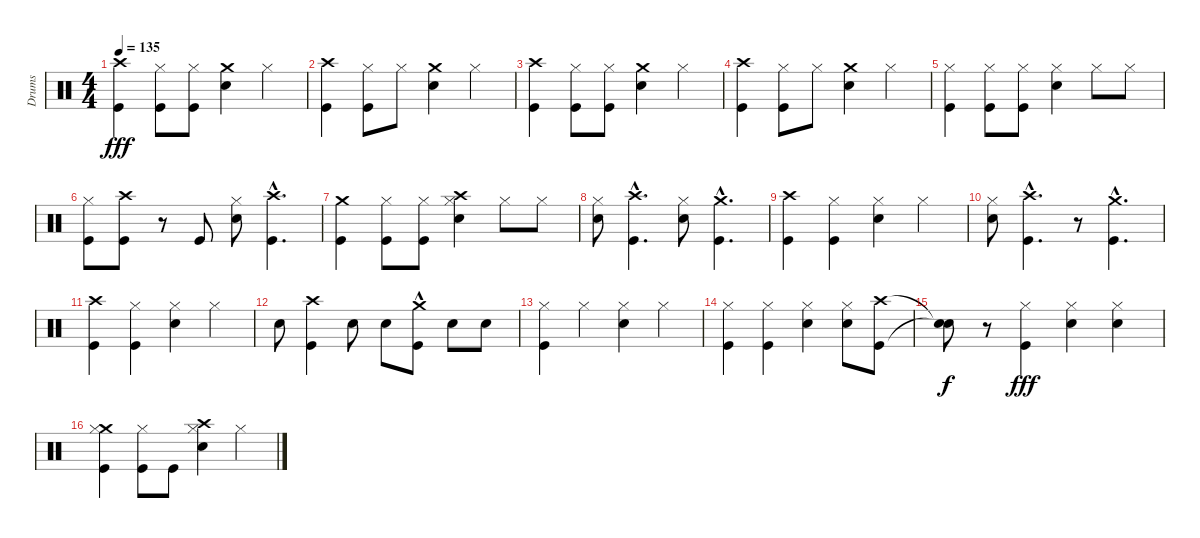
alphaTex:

\track ("Drums" "Drums") {instrument percussion}
\staff {score}
\articulation defaults
\ts (4 4)
\tempo 135
\clef neutral
\ks c
("Crash high (hit)" "Kick (hit)").4{dy fff} ("Kick (hit)" "Hi-Hat (closed)").8 ("Kick (hit)" "Hi-Hat (closed)").8 ("Crash medium (hit)" "Snare (hit) 2").4 "Hi-Hat (closed)".4 |
("Crash high (hit)" "Kick (hit)").4 ("Hi-Hat (closed)" "Kick (hit)").8 "Hi-Hat (closed)".8 ("Crash medium (hit)" "Snare (hit) 2").4 "Hi-Hat (closed)".4 |
("Crash high (hit)" "Kick (hit)").4 ("Kick (hit)" "Hi-Hat (closed)").8 ("Kick (hit)" "Hi-Hat (closed)").8 ("Crash medium (hit)" "Snare (hit) 2").4 "Hi-Hat (closed)".4 |
("Crash high (hit)" "Kick (hit)").4 ("Hi-Hat (closed)" "Kick (hit)").8 "Hi-Hat (closed)".8 ("Crash medium (hit)" "Snare (hit) 2").4 "Hi-Hat (closed)".4 |
("Hi-Hat (closed)" "Kick (hit)").4 ("Hi-Hat (closed)" "Kick (hit)").8 ("Hi-Hat (closed)" "Kick (hit)").8 ("Hi-Hat (closed)" "Snare (hit) 2").4 "Hi-Hat (closed)".8 "Hi-Hat (closed)".8 |
("Kick (hit)" "Hi-Hat (closed)").8 ("Crash high (hit)" "Kick (hit)").8 r.8 "Kick (hit)".8 ("Hi-Hat (closed)" "Snare (hit) 2").8 ("Crash high (hit)"{hac} "Kick (hit)"{hac}).4{d} |
("Crash medium (hit)" "Kick (hit)").4 ("Kick (hit)" "Hi-Hat (closed)").8 ("Kick (hit)" "Hi-Hat (closed)").8 ("Hi-Hat (closed)" "Crash high (hit)" "Snare (hit) 2").4 "Hi-Hat (closed)".8 "Hi-Hat (closed)".8 |
("Hi-Hat (closed)" "Snare (hit) 2").8 ("Kick (hit)"{hac} "Crash high (hit)"{hac}).4{d} ("Hi-Hat (closed)" "Snare (hit) 2").8 ("Crash medium (hit)"{hac} "Kick (hit)"{hac}).4{d} |
("Kick (hit)" "Crash high (hit)").4 ("Kick (hit)" "Hi-Hat (closed)").4 ("Snare (hit) 2" "Hi-Hat (closed)").4 "Hi-Hat (closed)".4 |
("Hi-Hat (closed)" "Snare (hit) 2").8 ("Kick (hit)"{hac} "Crash high (hit)"{hac}).4{d} r.8 ("Kick (hit)"{hac} "Crash medium (hit)"{hac}).4{d} |
("Kick (hit)" "Crash high (hit)").4 ("Kick (hit)" "Hi-Hat (closed)").4 ("Snare (hit) 2" "Hi-Hat (closed)").4 "Hi-Hat (closed)".4 |
"Snare (hit) 2".8 ("Kick (hit)" "Crash high (hit)").4 "Snare (hit) 2".8 "Snare (hit) 2".8 ("Kick (hit)"{hac} "Crash medium (hit)").8 "Snare (hit) 2".8 "Snare (hit) 2".8 |
("Kick (hit)" "Hi-Hat (closed)").4 "Hi-Hat (closed)".4 ("Snare (hit) 2" "Hi-Hat (closed)").4 "Hi-Hat (closed)".4 |
("Kick (hit)" "Hi-Hat (closed)").4 ("Kick (hit)" "Hi-Hat (closed)").4 ("Snare (hit) 2" "Hi-Hat (closed)").4 ("Snare (hit) 2" "Hi-Hat (closed)").8 ("Kick (hit)" "Crash high (hit)").8 |
("Snare (hit)"{t} "Snare (hit)"{t}).8{dy f} r.8 ("Kick (hit)" "Hi-Hat (closed)").4{dy fff} ("Snare (hit) 2" "Hi-Hat (closed)").4 ("Snare (hit) 2" "Hi-Hat (closed)").4 |
("Crash medium (hit)" "Kick (hit)" "Hi-Hat (closed)").4 ("Kick (hit)" "Hi-Hat (closed)").8 "Kick (hit)".8 ("Crash high (hit)" "Snare (hit) 2" "Hi-Hat (closed)").4 "Hi-Hat (closed)".4
